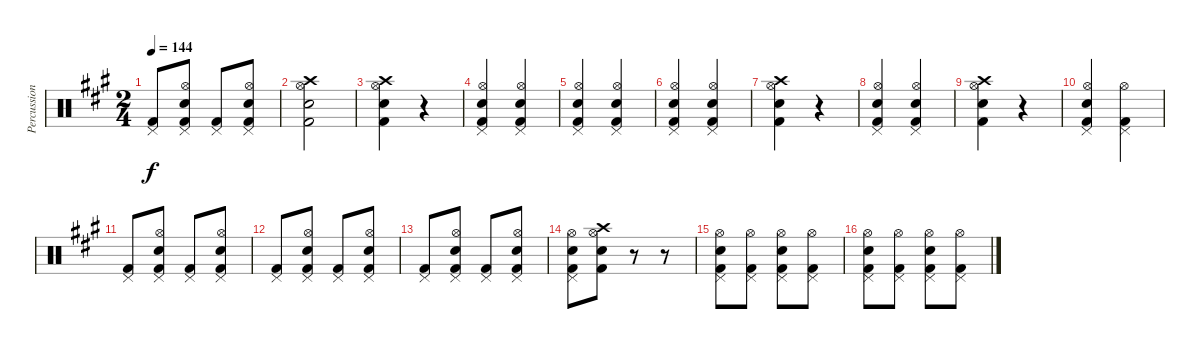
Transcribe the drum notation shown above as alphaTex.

\track ("Percussion" "Percussion") {instrument percussion}
\staff {score}
\articulation defaults
\ts (2 4)
\tempo 144
\clef neutral
\ks a
("Pedal Hi-Hat (hit)" "Kick (hit) 2").8{dy f} ("Pedal Hi-Hat (hit)" "Hi-Hat (open)" "Snare (hit) 2" "Kick (hit) 2").8 ("Pedal Hi-Hat (hit)" "Kick (hit) 2").8 ("Pedal Hi-Hat (hit)" "Hi-Hat (open)" "Snare (hit) 2" "Kick (hit) 2").8 |
("Crash high (hit)" "Hi-Hat (open)" "Snare (hit) 2" "Kick (hit) 2").2 |
("Crash high (hit)" "Hi-Hat (open)" "Snare (hit) 2" "Kick (hit) 2").4 r.4 |
("Pedal Hi-Hat (hit)" "Hi-Hat (open)" "Snare (hit) 2" "Kick (hit) 2").4 ("Pedal Hi-Hat (hit)" "Hi-Hat (open)" "Snare (hit) 2" "Kick (hit) 2").4 |
("Pedal Hi-Hat (hit)" "Hi-Hat (open)" "Snare (hit) 2" "Kick (hit) 2").4 ("Pedal Hi-Hat (hit)" "Hi-Hat (open)" "Snare (hit) 2" "Kick (hit) 2").4 |
("Pedal Hi-Hat (hit)" "Hi-Hat (open)" "Snare (hit) 2" "Kick (hit) 2").4 ("Pedal Hi-Hat (hit)" "Hi-Hat (open)" "Snare (hit) 2" "Kick (hit) 2").4 |
("Crash high (hit)" "Hi-Hat (open)" "Snare (hit) 2" "Kick (hit) 2").4 r.4 |
("Pedal Hi-Hat (hit)" "Hi-Hat (open)" "Snare (hit) 2" "Kick (hit) 2").4 ("Pedal Hi-Hat (hit)" "Hi-Hat (open)" "Snare (hit) 2" "Kick (hit) 2").4 |
("Crash high (hit)" "Hi-Hat (open)" "Snare (hit) 2" "Kick (hit) 2").4 r.4 |
("Pedal Hi-Hat (hit)" "Hi-Hat (open)" "Snare (hit) 2" "Kick (hit) 2").4 ("Pedal Hi-Hat (hit)" "Hi-Hat (open)" "Kick (hit) 2").4 |
("Pedal Hi-Hat (hit)" "Kick (hit) 2").8 ("Pedal Hi-Hat (hit)" "Hi-Hat (open)" "Snare (hit) 2" "Kick (hit) 2").8 ("Pedal Hi-Hat (hit)" "Kick (hit) 2").8 ("Pedal Hi-Hat (hit)" "Hi-Hat (open)" "Snare (hit) 2" "Kick (hit) 2").8 |
("Pedal Hi-Hat (hit)" "Kick (hit) 2").8 ("Pedal Hi-Hat (hit)" "Hi-Hat (open)" "Snare (hit) 2" "Kick (hit) 2").8 ("Pedal Hi-Hat (hit)" "Kick (hit) 2").8 ("Pedal Hi-Hat (hit)" "Hi-Hat (open)" "Snare (hit) 2" "Kick (hit) 2").8 |
("Pedal Hi-Hat (hit)" "Kick (hit) 2").8 ("Pedal Hi-Hat (hit)" "Hi-Hat (open)" "Snare (hit) 2" "Kick (hit) 2").8 ("Pedal Hi-Hat (hit)" "Kick (hit) 2").8 ("Pedal Hi-Hat (hit)" "Hi-Hat (open)" "Snare (hit) 2" "Kick (hit) 2").8 |
("Pedal Hi-Hat (hit)" "Hi-Hat (open)" "Snare (hit) 2" "Kick (hit) 2").8 ("Crash high (hit)" "Hi-Hat (open)" "Snare (hit) 2" "Kick (hit) 2").8 r.8 r.8 |
("Pedal Hi-Hat (hit)" "Hi-Hat (open)" "Snare (hit) 2" "Kick (hit) 2").8 ("Pedal Hi-Hat (hit)" "Hi-Hat (open)" "Kick (hit) 2").8 ("Pedal Hi-Hat (hit)" "Hi-Hat (open)" "Snare (hit) 2" "Kick (hit) 2").8 ("Pedal Hi-Hat (hit)" "Hi-Hat (open)" "Kick (hit) 2").8 |
("Pedal Hi-Hat (hit)" "Hi-Hat (open)" "Snare (hit) 2" "Kick (hit) 2").8 ("Pedal Hi-Hat (hit)" "Hi-Hat (open)" "Kick (hit) 2").8 ("Pedal Hi-Hat (hit)" "Hi-Hat (open)" "Snare (hit) 2" "Kick (hit) 2").8 ("Pedal Hi-Hat (hit)" "Hi-Hat (open)" "Kick (hit) 2").8
